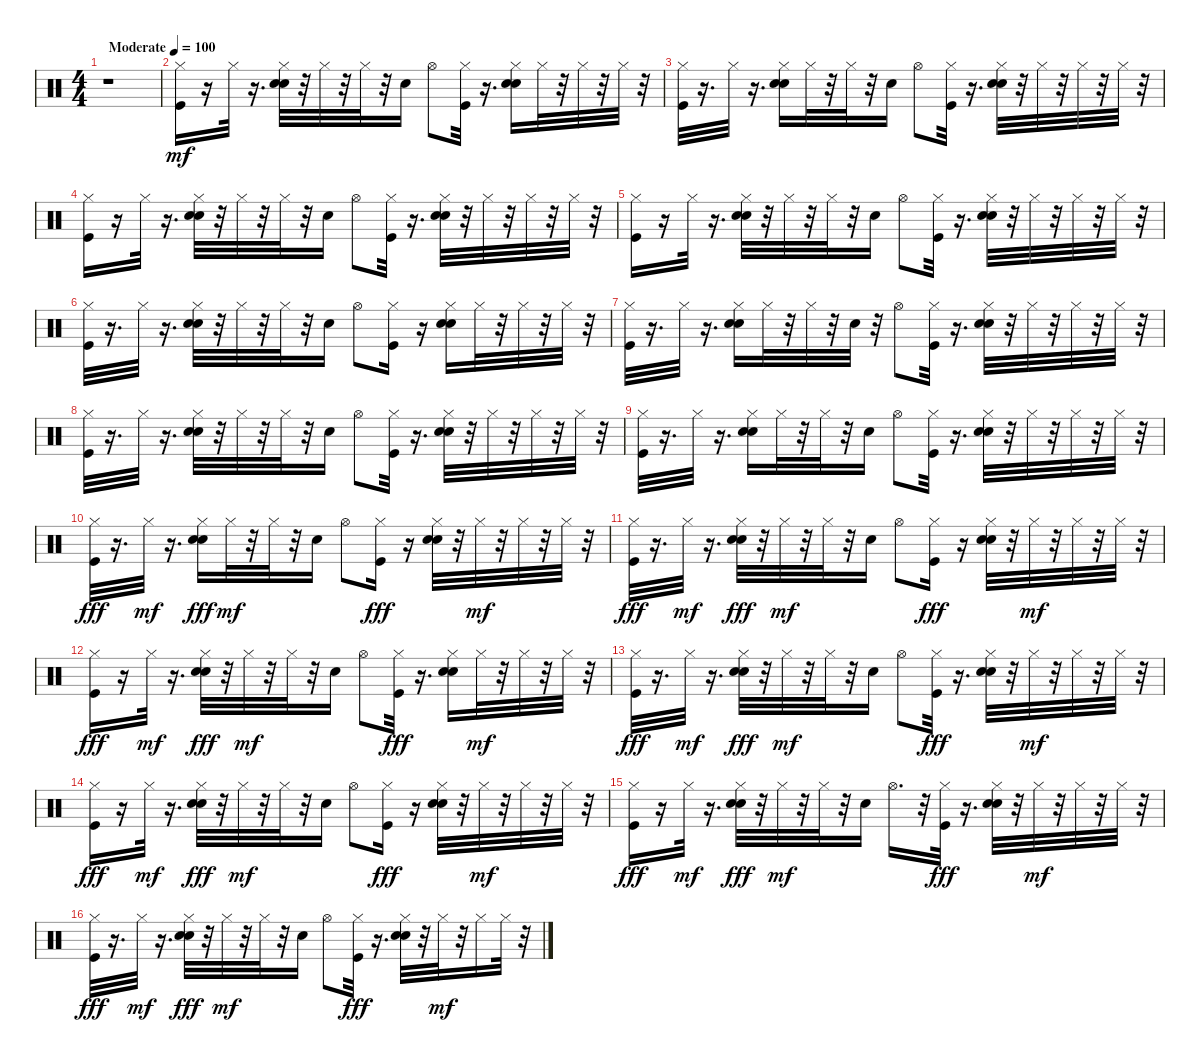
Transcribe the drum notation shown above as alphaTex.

\track "" {instrument percussion}
\staff {score}
\articulation defaults
\ts (4 4)
\tempo (100 "Moderate")
\clef neutral
\ks c
r.1{dy mf} |
("Hi-Hat (closed)" "Kick (hit)").16 r.16 "Hi-Hat (closed)".32 r.16{d} ("Hi-Hat (closed)" "Hand Clap (hit)" "Snare (hit) 2").32 r.32 "Hi-Hat (closed)".32 r.32 "Hi-Hat (closed)".32 r.32 "Electric Snare (hit)".16 "Hi-Hat (open)".8 ("Hi-Hat (closed)" "Kick (hit)").32 r.16{d} ("Hi-Hat (closed)" "Hand Clap (hit)" "Snare (hit) 2").16 "Hi-Hat (closed)".32 r.32 "Hi-Hat (closed)".32 r.32 "Hi-Hat (closed)".32 r.32 |
("Hi-Hat (closed)" "Kick (hit)").32 r.16{d} "Hi-Hat (closed)".32 r.16{d} ("Hi-Hat (closed)" "Hand Clap (hit)" "Snare (hit) 2").16 "Hi-Hat (closed)".32 r.32 "Hi-Hat (closed)".32 r.32 "Electric Snare (hit)".16 "Hi-Hat (open)".8 ("Hi-Hat (closed)" "Kick (hit)").32 r.16{d} ("Hi-Hat (closed)" "Hand Clap (hit)" "Snare (hit) 2").32 r.32 "Hi-Hat (closed)".32 r.32 "Hi-Hat (closed)".32 r.32 "Hi-Hat (closed)".32 r.32 |
("Hi-Hat (closed)" "Kick (hit)").16 r.16 "Hi-Hat (closed)".32 r.16{d} ("Hi-Hat (closed)" "Hand Clap (hit)" "Snare (hit) 2").32 r.32 "Hi-Hat (closed)".32 r.32 "Hi-Hat (closed)".32 r.32 "Electric Snare (hit)".16 "Hi-Hat (open)".8 ("Hi-Hat (closed)" "Kick (hit)").32 r.16{d} ("Hi-Hat (closed)" "Hand Clap (hit)" "Snare (hit) 2").32 r.32 "Hi-Hat (closed)".32 r.32 "Hi-Hat (closed)".32 r.32 "Hi-Hat (closed)".32 r.32 |
("Hi-Hat (closed)" "Kick (hit)").16 r.16 "Hi-Hat (closed)".32 r.16{d} ("Hi-Hat (closed)" "Hand Clap (hit)" "Snare (hit) 2").32 r.32 "Hi-Hat (closed)".32 r.32 "Hi-Hat (closed)".32 r.32 "Electric Snare (hit)".16 "Hi-Hat (open)".8 ("Hi-Hat (closed)" "Kick (hit)").32 r.16{d} ("Hi-Hat (closed)" "Hand Clap (hit)" "Snare (hit) 2").32 r.32 "Hi-Hat (closed)".32 r.32 "Hi-Hat (closed)".32 r.32 "Hi-Hat (closed)".32 r.32 |
("Hi-Hat (closed)" "Kick (hit)").32 r.16{d} "Hi-Hat (closed)".32 r.16{d} ("Hi-Hat (closed)" "Hand Clap (hit)" "Snare (hit) 2").32 r.32 "Hi-Hat (closed)".32 r.32 "Hi-Hat (closed)".32 r.32 "Electric Snare (hit)".16 "Hi-Hat (open)".8 ("Hi-Hat (closed)" "Kick (hit)").16 r.16 ("Hi-Hat (closed)" "Hand Clap (hit)" "Snare (hit) 2").16 "Hi-Hat (closed)".32 r.32 "Hi-Hat (closed)".32 r.32 "Hi-Hat (closed)".32 r.32 |
("Hi-Hat (closed)" "Kick (hit)").32 r.16{d} "Hi-Hat (closed)".32 r.16{d} ("Hi-Hat (closed)" "Hand Clap (hit)" "Snare (hit) 2").16 "Hi-Hat (closed)".32 r.32 "Hi-Hat (closed)".32 r.32 "Electric Snare (hit)".32 r.32 "Hi-Hat (open)".8 ("Hi-Hat (closed)" "Kick (hit)").32 r.16{d} ("Hi-Hat (closed)" "Hand Clap (hit)" "Snare (hit) 2").32 r.32 "Hi-Hat (closed)".32 r.32 "Hi-Hat (closed)".32 r.32 "Hi-Hat (closed)".32 r.32 |
("Hi-Hat (closed)" "Kick (hit)").32 r.16{d} "Hi-Hat (closed)".32 r.16{d} ("Hi-Hat (closed)" "Hand Clap (hit)" "Snare (hit) 2").32 r.32 "Hi-Hat (closed)".32 r.32 "Hi-Hat (closed)".32 r.32 "Electric Snare (hit)".16 "Hi-Hat (open)".8 ("Hi-Hat (closed)" "Kick (hit)").32 r.16{d} ("Hi-Hat (closed)" "Hand Clap (hit)" "Snare (hit) 2").32 r.32 "Hi-Hat (closed)".32 r.32 "Hi-Hat (closed)".32 r.32 "Hi-Hat (closed)".32 r.32 |
("Hi-Hat (closed)" "Kick (hit)").32 r.16{d} "Hi-Hat (closed)".32 r.16{d} ("Hi-Hat (closed)" "Hand Clap (hit)" "Snare (hit) 2").16 "Hi-Hat (closed)".32 r.32 "Hi-Hat (closed)".32 r.32 "Electric Snare (hit)".16 "Hi-Hat (open)".8 ("Hi-Hat (closed)" "Kick (hit)").32 r.16{d} ("Hi-Hat (closed)" "Hand Clap (hit)" "Snare (hit) 2").32 r.32 "Hi-Hat (closed)".32 r.32 "Hi-Hat (closed)".32 r.32 "Hi-Hat (closed)".32 r.32 |
("Hi-Hat (closed)" "Kick (hit)").32{dy fff} r.16{d} "Hi-Hat (closed)".32{dy mf} r.16{d} ("Hi-Hat (closed)" "Hand Clap (hit)" "Snare (hit) 2").16{dy fff} "Hi-Hat (closed)".32{dy mf} r.32 "Hi-Hat (closed)".32 r.32 "Electric Snare (hit)".16 "Hi-Hat (open)".8 ("Hi-Hat (closed)" "Kick (hit)").16{dy fff} r.16 ("Hi-Hat (closed)" "Hand Clap (hit)" "Snare (hit) 2").32 r.32 "Hi-Hat (closed)".32{dy mf} r.32 "Hi-Hat (closed)".32 r.32 "Hi-Hat (closed)".32 r.32 |
("Hi-Hat (closed)" "Kick (hit)").32{dy fff} r.16{d} "Hi-Hat (closed)".32{dy mf} r.16{d} ("Hi-Hat (closed)" "Hand Clap (hit)" "Snare (hit) 2").32{dy fff} r.32 "Hi-Hat (closed)".32{dy mf} r.32 "Hi-Hat (closed)".32 r.32 "Electric Snare (hit)".16 "Hi-Hat (open)".8 ("Hi-Hat (closed)" "Kick (hit)").16{dy fff} r.16 ("Hi-Hat (closed)" "Hand Clap (hit)" "Snare (hit) 2").32 r.32 "Hi-Hat (closed)".32{dy mf} r.32 "Hi-Hat (closed)".32 r.32 "Hi-Hat (closed)".32 r.32 |
("Hi-Hat (closed)" "Kick (hit)").16{dy fff} r.16 "Hi-Hat (closed)".32{dy mf} r.16{d} ("Hi-Hat (closed)" "Hand Clap (hit)" "Snare (hit) 2").32{dy fff} r.32 "Hi-Hat (closed)".32{dy mf} r.32 "Hi-Hat (closed)".32 r.32 "Electric Snare (hit)".16 "Hi-Hat (open)".8 ("Hi-Hat (closed)" "Kick (hit)").32{dy fff} r.16{d} ("Hi-Hat (closed)" "Hand Clap (hit)" "Snare (hit) 2").16 "Hi-Hat (closed)".32{dy mf} r.32 "Hi-Hat (closed)".32 r.32 "Hi-Hat (closed)".32 r.32 |
("Hi-Hat (closed)" "Kick (hit)").32{dy fff} r.16{d} "Hi-Hat (closed)".32{dy mf} r.16{d} ("Hi-Hat (closed)" "Hand Clap (hit)" "Snare (hit) 2").32{dy fff} r.32 "Hi-Hat (closed)".32{dy mf} r.32 "Hi-Hat (closed)".32 r.32 "Electric Snare (hit)".16 "Hi-Hat (open)".8 ("Hi-Hat (closed)" "Kick (hit)").32{dy fff} r.16{d} ("Hi-Hat (closed)" "Hand Clap (hit)" "Snare (hit) 2").32 r.32 "Hi-Hat (closed)".32{dy mf} r.32 "Hi-Hat (closed)".32 r.32 "Hi-Hat (closed)".32 r.32 |
("Hi-Hat (closed)" "Kick (hit)").16{dy fff} r.16 "Hi-Hat (closed)".32{dy mf} r.16{d} ("Hi-Hat (closed)" "Hand Clap (hit)" "Snare (hit) 2").32{dy fff} r.32 "Hi-Hat (closed)".32{dy mf} r.32 "Hi-Hat (closed)".32 r.32 "Electric Snare (hit)".16 "Hi-Hat (open)".8 ("Hi-Hat (closed)" "Kick (hit)").16{dy fff} r.16 ("Hi-Hat (closed)" "Hand Clap (hit)" "Snare (hit) 2").32 r.32 "Hi-Hat (closed)".32{dy mf} r.32 "Hi-Hat (closed)".32 r.32 "Hi-Hat (closed)".32 r.32 |
("Hi-Hat (closed)" "Kick (hit)").16{dy fff} r.16 "Hi-Hat (closed)".32{dy mf} r.16{d} ("Hi-Hat (closed)" "Hand Clap (hit)" "Snare (hit) 2").32{dy fff} r.32 "Hi-Hat (closed)".32{dy mf} r.32 "Hi-Hat (closed)".32 r.32 "Electric Snare (hit)".16 "Hi-Hat (open)".16{d} r.32 ("Hi-Hat (closed)" "Kick (hit)").32{dy fff} r.16{d} ("Hi-Hat (closed)" "Hand Clap (hit)" "Snare (hit) 2").32 r.32 "Hi-Hat (closed)".32{dy mf} r.32 "Hi-Hat (closed)".32 r.32 "Hi-Hat (closed)".32 r.32 |
("Hi-Hat (closed)" "Kick (hit)").32{dy fff} r.16{d} "Hi-Hat (closed)".32{dy mf} r.16{d} ("Hi-Hat (closed)" "Hand Clap (hit)" "Snare (hit) 2").32{dy fff} r.32 "Hi-Hat (closed)".32{dy mf} r.32 "Hi-Hat (closed)".32 r.32 "Electric Snare (hit)".16 "Hi-Hat (open)".8 ("Hi-Hat (closed)" "Kick (hit)").32{dy fff} r.16{d} ("Hi-Hat (closed)" "Hand Clap (hit)" "Snare (hit) 2").32 r.32 "Hi-Hat (closed)".32{dy mf} r.32 "Hi-Hat (closed)".16 "Hi-Hat (closed)".32 r.32
